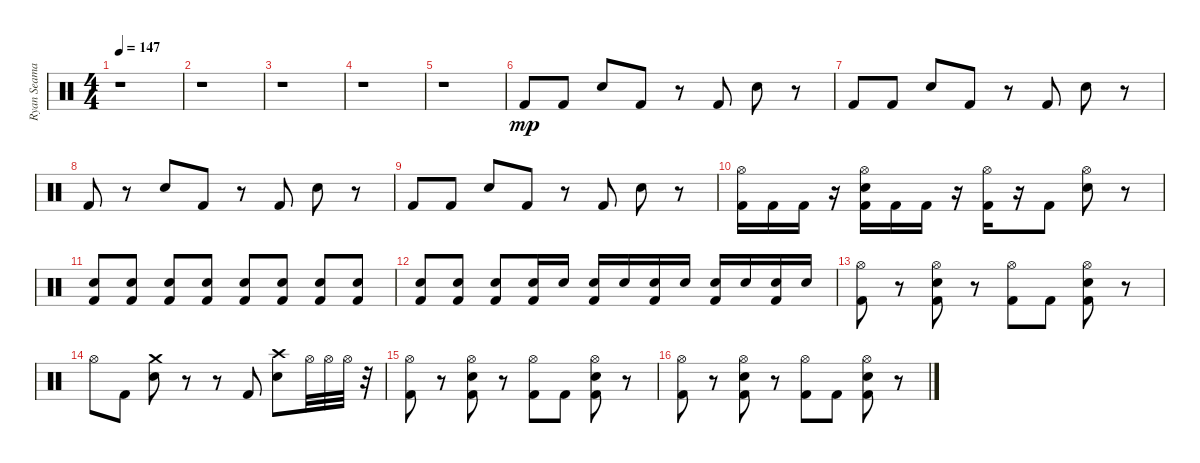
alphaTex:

\track ("Ryan Seaman - Drum" "Ryan Seama") {instrument percussion}
\staff {score}
\articulation defaults
\ts (4 4)
\tempo 147
\clef neutral
\ks c
r.1{dy mp} |
r.1 |
r.1 |
r.1 |
r.1 |
"Kick (hit) 2".8 "Kick (hit) 2".8 "Electric Snare (hit)".8 "Kick (hit) 2".8 r.8 "Kick (hit) 2".8 "Electric Snare (hit)".8 r.8 |
"Kick (hit) 2".8 "Kick (hit) 2".8 "Electric Snare (hit)".8 "Kick (hit) 2".8 r.8 "Kick (hit) 2".8 "Electric Snare (hit)".8 r.8 |
"Kick (hit) 2".8 r.8 "Electric Snare (hit)".8 "Kick (hit) 2".8 r.8 "Kick (hit) 2".8 "Electric Snare (hit)".8 r.8 |
"Kick (hit) 2".8 "Kick (hit) 2".8 "Electric Snare (hit)".8 "Kick (hit) 2".8 r.8 "Kick (hit) 2".8 "Electric Snare (hit)".8 r.8 |
("Hi-Hat (open)" "Kick (hit) 2").16 "Kick (hit) 2".16 "Kick (hit) 2".16 r.16 ("Hi-Hat (open)" "Electric Snare (hit)" "Kick (hit) 2").16 "Kick (hit) 2".16 "Kick (hit) 2".16 r.16 ("Hi-Hat (open)" "Kick (hit) 2").16 r.16 "Kick (hit) 2".8 ("Hi-Hat (open)" "Electric Snare (hit)").8 r.8 |
("Electric Snare (hit)" "Kick (hit) 2").8 ("Electric Snare (hit)" "Kick (hit) 2").8 ("Electric Snare (hit)" "Kick (hit) 2").8 ("Electric Snare (hit)" "Kick (hit) 2").8 ("Electric Snare (hit)" "Kick (hit) 2").8 ("Electric Snare (hit)" "Kick (hit) 2").8 ("Electric Snare (hit)" "Kick (hit) 2").8 ("Electric Snare (hit)" "Kick (hit) 2").8 |
("Electric Snare (hit)" "Kick (hit) 2").8 ("Electric Snare (hit)" "Kick (hit) 2").8 ("Electric Snare (hit)" "Kick (hit) 2").8 ("Electric Snare (hit)" "Kick (hit) 2").16 "Electric Snare (hit)".16 ("Electric Snare (hit)" "Kick (hit) 2").16 "Electric Snare (hit)".16 ("Electric Snare (hit)" "Kick (hit) 2").16 "Electric Snare (hit)".16 ("Electric Snare (hit)" "Kick (hit) 2").16 "Electric Snare (hit)".16 ("Electric Snare (hit)" "Kick (hit) 2").16 "Electric Snare (hit)".16 |
("Hi-Hat (open)" "Kick (hit) 2").8 r.8 ("Hi-Hat (open)" "Electric Snare (hit)" "Kick (hit) 2").8 r.8 ("Hi-Hat (open)" "Kick (hit) 2").8 "Kick (hit) 2".8 ("Hi-Hat (open)" "Electric Snare (hit)" "Kick (hit) 2").8 r.8 |
"Hi-Hat (open)".8 "Kick (hit) 2".8 ("Crash medium (hit)" "Electric Snare (hit)").8 r.8 r.8 "Kick (hit) 2".8 ("Crash high (hit)" "Electric Snare (hit)").8 "Hi-Hat (open)".32 "Hi-Hat (open)".32 "Hi-Hat (open)".32 r.32 |
("Hi-Hat (open)" "Kick (hit) 2").8 r.8 ("Hi-Hat (open)" "Electric Snare (hit)" "Kick (hit) 2").8 r.8 ("Hi-Hat (open)" "Kick (hit) 2").8 "Kick (hit) 2".8 ("Hi-Hat (open)" "Electric Snare (hit)" "Kick (hit) 2").8 r.8 |
("Hi-Hat (open)" "Kick (hit) 2").8 r.8 ("Hi-Hat (open)" "Electric Snare (hit)" "Kick (hit) 2").8 r.8 ("Hi-Hat (open)" "Kick (hit) 2").8 "Kick (hit) 2".8 ("Hi-Hat (open)" "Electric Snare (hit)" "Kick (hit) 2").8 r.8
